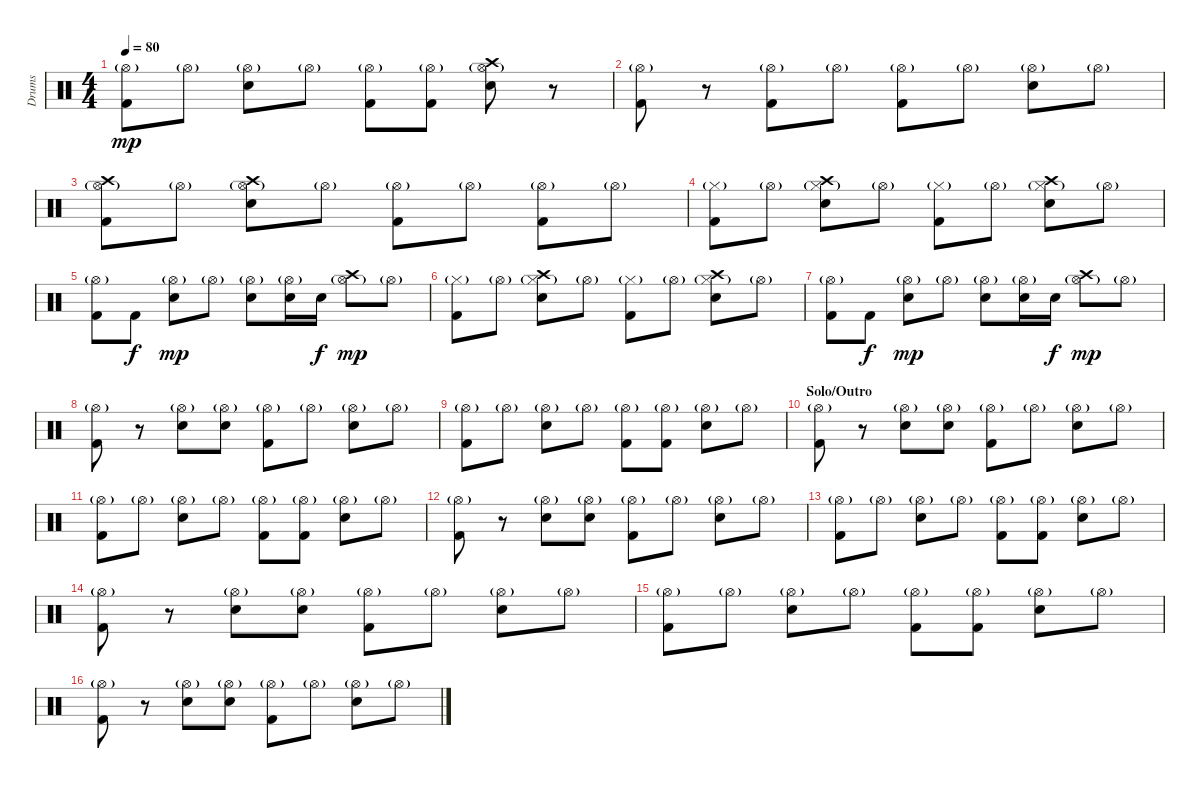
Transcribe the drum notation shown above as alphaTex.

\track ("Drums" "Drums") {instrument percussion}
\staff {score}
\articulation defaults
\ts (4 4)
\tempo 80
\clef neutral
\ks c
("Hi-Hat (open)"{g} "Kick (hit) 2").8{dy mp} "Hi-Hat (open)"{g}.8 ("Hi-Hat (open)"{g} "Snare (hit) 2").8 "Hi-Hat (open)"{g}.8 ("Hi-Hat (open)"{g} "Kick (hit) 2").8 ("Hi-Hat (open)"{g} "Kick (hit) 2").8 ("Hi-Hat (open)"{g} "Crash high (hit)" "Snare (hit) 2").8 r.8 |
("Hi-Hat (open)"{g} "Kick (hit) 2").8 r.8 ("Hi-Hat (open)"{g} "Kick (hit) 2").8 "Hi-Hat (open)"{g}.8 ("Hi-Hat (open)"{g} "Kick (hit) 2").8 "Hi-Hat (open)"{g}.8 ("Hi-Hat (open)"{g} "Snare (hit) 2").8 "Hi-Hat (open)"{g}.8 |
("Hi-Hat (open)"{g} "Crash high (hit)" "Kick (hit) 2").8 "Hi-Hat (open)"{g}.8 ("Hi-Hat (open)"{g} "Crash high (hit)" "Snare (hit) 2").8 "Hi-Hat (open)"{g}.8 ("Hi-Hat (open)"{g} "Kick (hit) 2").8 "Hi-Hat (open)"{g}.8 ("Hi-Hat (open)"{g} "Kick (hit) 2").8 "Hi-Hat (open)"{g}.8 |
("Hi-Hat (closed)"{g} "Kick (hit) 2").8 "Hi-Hat (open)"{g}.8 ("Hi-Hat (closed)"{g} "Crash high (hit)" "Snare (hit) 2").8 "Hi-Hat (open)"{g}.8 ("Hi-Hat (closed)"{g} "Kick (hit) 2").8 "Hi-Hat (open)"{g}.8 ("Hi-Hat (closed)"{g} "Crash high (hit)" "Snare (hit) 2").8 "Hi-Hat (open)"{g}.8 |
("Hi-Hat (open)"{g} "Kick (hit) 2").8 "Kick (hit) 2".8{dy f} ("Hi-Hat (open)"{g} "Snare (hit) 2").8{dy mp} "Hi-Hat (open)"{g}.8 ("Hi-Hat (open)"{g} "Snare (hit) 2").8 ("Hi-Hat (open)"{g} "Snare (hit) 2").16 "Snare (hit) 2".16{dy f} ("Hi-Hat (open)"{g} "Crash high (hit)").8{dy mp} "Hi-Hat (open)"{g}.8 |
("Hi-Hat (closed)"{g} "Kick (hit) 2").8 "Hi-Hat (open)"{g}.8 ("Hi-Hat (closed)"{g} "Crash high (hit)" "Snare (hit) 2").8 "Hi-Hat (open)"{g}.8 ("Hi-Hat (closed)"{g} "Kick (hit) 2").8 "Hi-Hat (open)"{g}.8 ("Hi-Hat (closed)"{g} "Crash high (hit)" "Snare (hit) 2").8 "Hi-Hat (open)"{g}.8 |
("Hi-Hat (open)"{g} "Kick (hit) 2").8 "Kick (hit) 2".8{dy f} ("Hi-Hat (open)"{g} "Snare (hit) 2").8{dy mp} "Hi-Hat (open)"{g}.8 ("Hi-Hat (open)"{g} "Snare (hit) 2").8 ("Hi-Hat (open)"{g} "Snare (hit) 2").16 "Snare (hit) 2".16{dy f} ("Hi-Hat (open)"{g} "Crash high (hit)").8{dy mp} "Hi-Hat (open)"{g}.8 |
("Hi-Hat (open)"{g} "Kick (hit) 2").8 r.8 ("Hi-Hat (open)"{g} "Snare (hit) 2").8 ("Hi-Hat (open)"{g} "Snare (hit) 2").8 ("Hi-Hat (open)"{g} "Kick (hit) 2").8 "Hi-Hat (open)"{g}.8 ("Hi-Hat (open)"{g} "Snare (hit) 2").8 "Hi-Hat (open)"{g}.8 |
("Hi-Hat (open)"{g} "Kick (hit) 2").8 "Hi-Hat (open)"{g}.8 ("Hi-Hat (open)"{g} "Snare (hit) 2").8 "Hi-Hat (open)"{g}.8 ("Hi-Hat (open)"{g} "Kick (hit) 2").8 ("Hi-Hat (open)"{g} "Kick (hit) 2").8 ("Hi-Hat (open)"{g} "Snare (hit) 2").8 "Hi-Hat (open)"{g}.8 |
\section ("" "Solo/Outro")
("Hi-Hat (open)"{g} "Kick (hit) 2").8 r.8 ("Hi-Hat (open)"{g} "Snare (hit) 2").8 ("Hi-Hat (open)"{g} "Snare (hit) 2").8 ("Hi-Hat (open)"{g} "Kick (hit) 2").8 "Hi-Hat (open)"{g}.8 ("Hi-Hat (open)"{g} "Snare (hit) 2").8 "Hi-Hat (open)"{g}.8 |
("Hi-Hat (open)"{g} "Kick (hit) 2").8 "Hi-Hat (open)"{g}.8 ("Hi-Hat (open)"{g} "Snare (hit) 2").8 "Hi-Hat (open)"{g}.8 ("Hi-Hat (open)"{g} "Kick (hit) 2").8 ("Hi-Hat (open)"{g} "Kick (hit) 2").8 ("Hi-Hat (open)"{g} "Snare (hit) 2").8 "Hi-Hat (open)"{g}.8 |
("Hi-Hat (open)"{g} "Kick (hit) 2").8 r.8 ("Hi-Hat (open)"{g} "Snare (hit) 2").8 ("Hi-Hat (open)"{g} "Snare (hit) 2").8 ("Hi-Hat (open)"{g} "Kick (hit) 2").8 "Hi-Hat (open)"{g}.8 ("Hi-Hat (open)"{g} "Snare (hit) 2").8 "Hi-Hat (open)"{g}.8 |
("Hi-Hat (open)"{g} "Kick (hit) 2").8 "Hi-Hat (open)"{g}.8 ("Hi-Hat (open)"{g} "Snare (hit) 2").8 "Hi-Hat (open)"{g}.8 ("Hi-Hat (open)"{g} "Kick (hit) 2").8 ("Hi-Hat (open)"{g} "Kick (hit) 2").8 ("Hi-Hat (open)"{g} "Snare (hit) 2").8 "Hi-Hat (open)"{g}.8 |
("Hi-Hat (open)"{g} "Kick (hit) 2").8 r.8 ("Hi-Hat (open)"{g} "Snare (hit) 2").8 ("Hi-Hat (open)"{g} "Snare (hit) 2").8 ("Hi-Hat (open)"{g} "Kick (hit) 2").8 "Hi-Hat (open)"{g}.8 ("Hi-Hat (open)"{g} "Snare (hit) 2").8 "Hi-Hat (open)"{g}.8 |
("Hi-Hat (open)"{g} "Kick (hit) 2").8 "Hi-Hat (open)"{g}.8 ("Hi-Hat (open)"{g} "Snare (hit) 2").8 "Hi-Hat (open)"{g}.8 ("Hi-Hat (open)"{g} "Kick (hit) 2").8 ("Hi-Hat (open)"{g} "Kick (hit) 2").8 ("Hi-Hat (open)"{g} "Snare (hit) 2").8 "Hi-Hat (open)"{g}.8 |
("Hi-Hat (open)"{g} "Kick (hit) 2").8 r.8 ("Hi-Hat (open)"{g} "Snare (hit) 2").8 ("Hi-Hat (open)"{g} "Snare (hit) 2").8 ("Hi-Hat (open)"{g} "Kick (hit) 2").8 "Hi-Hat (open)"{g}.8 ("Hi-Hat (open)"{g} "Snare (hit) 2").8 "Hi-Hat (open)"{g}.8
